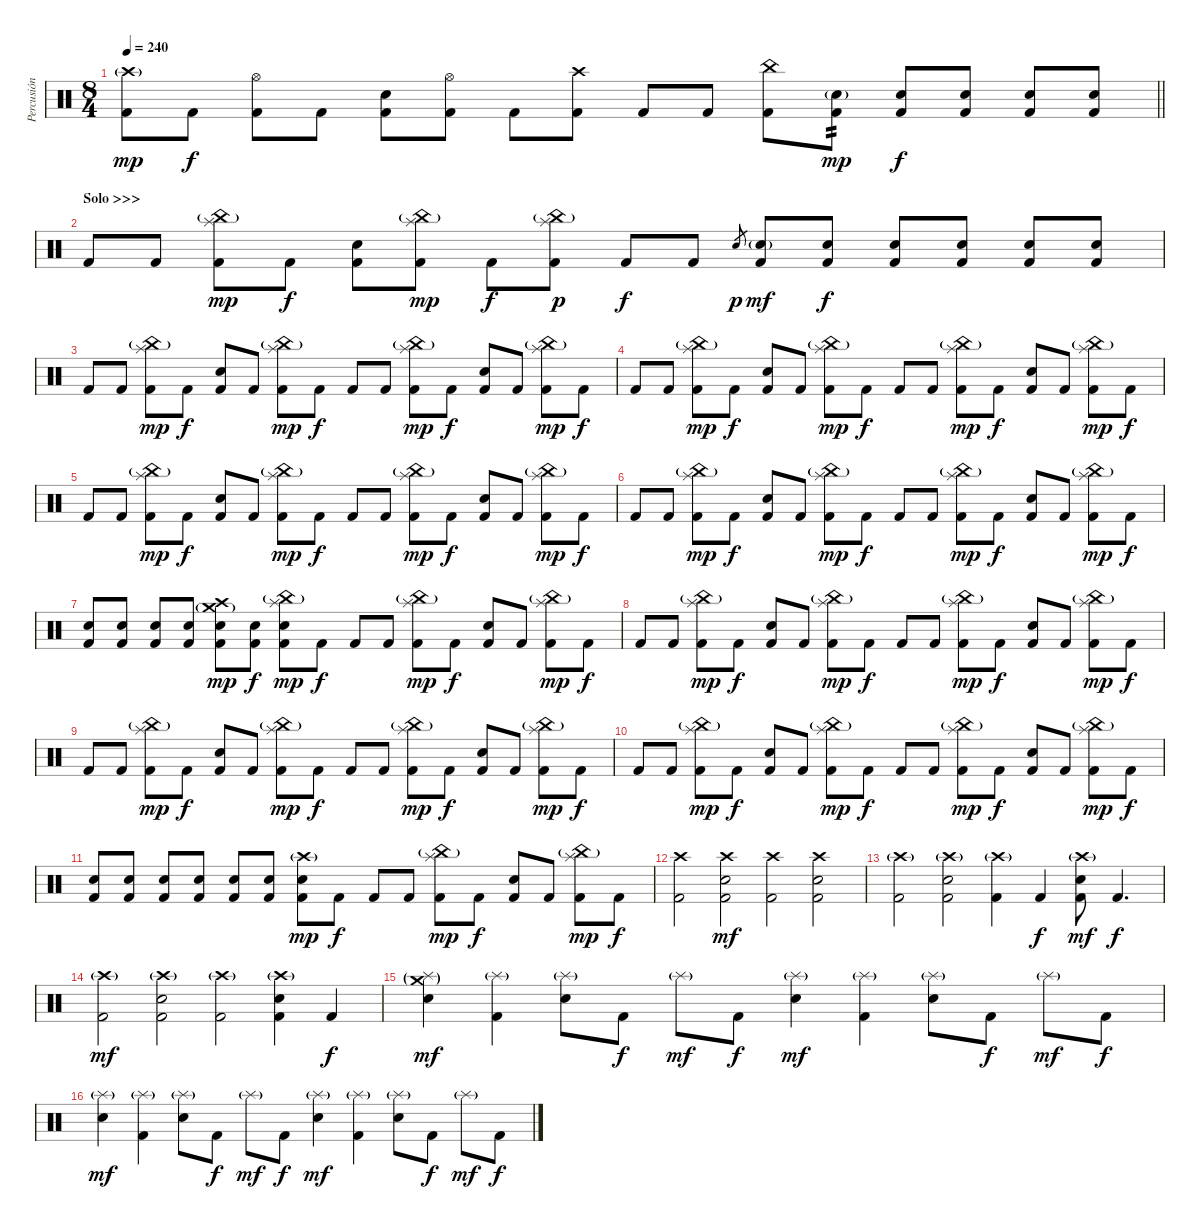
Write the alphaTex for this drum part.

\track ("Percusión" "Percusión") {instrument percussion}
\staff {score}
\articulation defaults
\ts (8 4)
\tempo 240
\clef neutral
\barLineRight lightlight
\ks c
("Crash high (hit)"{g} "Kick (hit) 2").8{dy mp} "Kick (hit) 2".8{dy f} ("Hi-Hat (open)" "Kick (hit) 2").8 "Kick (hit) 2".8 ("Electric Snare (hit)" "Kick (hit) 2").8 ("Hi-Hat (open)" "Kick (hit) 2").8 "Kick (hit) 2".8 ("Crash high (hit)" "Kick (hit) 2").8 "Kick (hit) 2".8 "Kick (hit) 2".8 ("China (hit)" "Kick (hit) 2").8 ("Electric Snare (hit)"{g} "Kick (hit) 2").8{tp 2 dy mp} ("Electric Snare (hit)" "Kick (hit) 2").8{dy f} ("Electric Snare (hit)" "Kick (hit) 2").8 ("Electric Snare (hit)" "Kick (hit) 2").8 ("Electric Snare (hit)" "Kick (hit) 2").8 |
\section ("" "Solo >>>")
"Kick (hit) 2".8 "Kick (hit) 2".8 ("Splash (hit)" "China (hit)"{g} "Kick (hit) 2").8{dy mp} "Kick (hit) 2".8{dy f} ("Electric Snare (hit)" "Kick (hit) 2").8 ("Splash (hit)" "China (hit)"{g} "Kick (hit) 2").8{dy mp} "Kick (hit) 2".8{dy f} ("Splash (hit)" "China (hit)"{g} "Kick (hit) 2").8{dy p} "Kick (hit) 2".8{dy f} "Kick (hit) 2".8 "Electric Snare (hit)".8{gr dy p} ("Electric Snare (hit)"{g} "Kick (hit) 2").8{dy mf} ("Electric Snare (hit)" "Kick (hit) 2").8{dy f} ("Electric Snare (hit)" "Kick (hit) 2").8 ("Electric Snare (hit)" "Kick (hit) 2").8 ("Electric Snare (hit)" "Kick (hit) 2").8 ("Electric Snare (hit)" "Kick (hit) 2").8 |
"Kick (hit) 2".8 "Kick (hit) 2".8 ("Splash (hit)" "China (hit)"{g} "Kick (hit) 2").8{dy mp} "Kick (hit) 2".8{dy f} ("Electric Snare (hit)" "Kick (hit) 2").8 "Kick (hit) 2".8 ("Splash (hit)" "China (hit)"{g} "Kick (hit) 2").8{dy mp} "Kick (hit) 2".8{dy f} "Kick (hit) 2".8 "Kick (hit) 2".8 ("Splash (hit)" "China (hit)"{g} "Kick (hit) 2").8{dy mp} "Kick (hit) 2".8{dy f} ("Electric Snare (hit)" "Kick (hit) 2").8 "Kick (hit) 2".8 ("Splash (hit)" "China (hit)"{g} "Kick (hit) 2").8{dy mp} "Kick (hit) 2".8{dy f} |
"Kick (hit) 2".8 "Kick (hit) 2".8 ("Splash (hit)" "China (hit)"{g} "Kick (hit) 2").8{dy mp} "Kick (hit) 2".8{dy f} ("Electric Snare (hit)" "Kick (hit) 2").8 "Kick (hit) 2".8 ("Splash (hit)" "China (hit)"{g} "Kick (hit) 2").8{dy mp} "Kick (hit) 2".8{dy f} "Kick (hit) 2".8 "Kick (hit) 2".8 ("Splash (hit)" "China (hit)"{g} "Kick (hit) 2").8{dy mp} "Kick (hit) 2".8{dy f} ("Electric Snare (hit)" "Kick (hit) 2").8 "Kick (hit) 2".8 ("Splash (hit)" "China (hit)"{g} "Kick (hit) 2").8{dy mp} "Kick (hit) 2".8{dy f} |
"Kick (hit) 2".8 "Kick (hit) 2".8 ("Splash (hit)" "China (hit)"{g} "Kick (hit) 2").8{dy mp} "Kick (hit) 2".8{dy f} ("Electric Snare (hit)" "Kick (hit) 2").8 "Kick (hit) 2".8 ("Splash (hit)" "China (hit)"{g} "Kick (hit) 2").8{dy mp} "Kick (hit) 2".8{dy f} "Kick (hit) 2".8 "Kick (hit) 2".8 ("Splash (hit)" "China (hit)"{g} "Kick (hit) 2").8{dy mp} "Kick (hit) 2".8{dy f} ("Electric Snare (hit)" "Kick (hit) 2").8 "Kick (hit) 2".8 ("Splash (hit)" "China (hit)"{g} "Kick (hit) 2").8{dy mp} "Kick (hit) 2".8{dy f} |
"Kick (hit) 2".8 "Kick (hit) 2".8 ("Splash (hit)" "China (hit)"{g} "Kick (hit) 2").8{dy mp} "Kick (hit) 2".8{dy f} ("Electric Snare (hit)" "Kick (hit) 2").8 "Kick (hit) 2".8 ("Splash (hit)" "China (hit)"{g} "Kick (hit) 2").8{dy mp} "Kick (hit) 2".8{dy f} "Kick (hit) 2".8 "Kick (hit) 2".8 ("Splash (hit)" "China (hit)"{g} "Kick (hit) 2").8{dy mp} "Kick (hit) 2".8{dy f} ("Electric Snare (hit)" "Kick (hit) 2").8 "Kick (hit) 2".8 ("Splash (hit)" "China (hit)"{g} "Kick (hit) 2").8{dy mp} "Kick (hit) 2".8{dy f} |
("Electric Snare (hit)" "Kick (hit) 2").8 ("Electric Snare (hit)" "Kick (hit) 2").8 ("Electric Snare (hit)" "Kick (hit) 2").8 ("Electric Snare (hit)" "Kick (hit) 2").8 ("Crash high (hit)" "Crash medium (hit)"{g} "Electric Snare (hit)" "Kick (hit) 2").8{dy mp} ("Electric Snare (hit)" "Kick (hit) 2").8{dy f} ("Splash (hit)" "China (hit)"{g} "Electric Snare (hit)" "Kick (hit) 2").8{dy mp} "Kick (hit) 2".8{dy f} "Kick (hit) 2".8 "Kick (hit) 2".8 ("Splash (hit)" "China (hit)"{g} "Kick (hit) 2").8{dy mp} "Kick (hit) 2".8{dy f} ("Electric Snare (hit)" "Kick (hit) 2").8 "Kick (hit) 2".8 ("Splash (hit)" "China (hit)"{g} "Kick (hit) 2").8{dy mp} "Kick (hit) 2".8{dy f} |
"Kick (hit) 2".8 "Kick (hit) 2".8 ("Splash (hit)" "China (hit)"{g} "Kick (hit) 2").8{dy mp} "Kick (hit) 2".8{dy f} ("Electric Snare (hit)" "Kick (hit) 2").8 "Kick (hit) 2".8 ("Splash (hit)" "China (hit)"{g} "Kick (hit) 2").8{dy mp} "Kick (hit) 2".8{dy f} "Kick (hit) 2".8 "Kick (hit) 2".8 ("Splash (hit)" "China (hit)"{g} "Kick (hit) 2").8{dy mp} "Kick (hit) 2".8{dy f} ("Electric Snare (hit)" "Kick (hit) 2").8 "Kick (hit) 2".8 ("Splash (hit)" "China (hit)"{g} "Kick (hit) 2").8{dy mp} "Kick (hit) 2".8{dy f} |
"Kick (hit) 2".8 "Kick (hit) 2".8 ("Splash (hit)" "China (hit)"{g} "Kick (hit) 2").8{dy mp} "Kick (hit) 2".8{dy f} ("Electric Snare (hit)" "Kick (hit) 2").8 "Kick (hit) 2".8 ("Splash (hit)" "China (hit)"{g} "Kick (hit) 2").8{dy mp} "Kick (hit) 2".8{dy f} "Kick (hit) 2".8 "Kick (hit) 2".8 ("Splash (hit)" "China (hit)"{g} "Kick (hit) 2").8{dy mp} "Kick (hit) 2".8{dy f} ("Electric Snare (hit)" "Kick (hit) 2").8 "Kick (hit) 2".8 ("Splash (hit)" "China (hit)"{g} "Kick (hit) 2").8{dy mp} "Kick (hit) 2".8{dy f} |
"Kick (hit) 2".8 "Kick (hit) 2".8 ("Splash (hit)" "China (hit)"{g} "Kick (hit) 2").8{dy mp} "Kick (hit) 2".8{dy f} ("Electric Snare (hit)" "Kick (hit) 2").8 "Kick (hit) 2".8 ("Splash (hit)" "China (hit)"{g} "Kick (hit) 2").8{dy mp} "Kick (hit) 2".8{dy f} "Kick (hit) 2".8 "Kick (hit) 2".8 ("Splash (hit)" "China (hit)"{g} "Kick (hit) 2").8{dy mp} "Kick (hit) 2".8{dy f} ("Electric Snare (hit)" "Kick (hit) 2").8 "Kick (hit) 2".8 ("Splash (hit)" "China (hit)"{g} "Kick (hit) 2").8{dy mp} "Kick (hit) 2".8{dy f} |
("Electric Snare (hit)" "Kick (hit) 2").8 ("Electric Snare (hit)" "Kick (hit) 2").8 ("Electric Snare (hit)" "Kick (hit) 2").8 ("Electric Snare (hit)" "Kick (hit) 2").8 ("Electric Snare (hit)" "Kick (hit) 2").8 ("Electric Snare (hit)" "Kick (hit) 2").8 ("Crash high (hit)"{g} "Electric Snare (hit)" "Kick (hit) 2").8{dy mp} "Kick (hit) 2".8{dy f} "Kick (hit) 2".8 "Kick (hit) 2".8 ("Splash (hit)" "China (hit)"{g} "Kick (hit) 2").8{dy mp} "Kick (hit) 2".8{dy f} ("Electric Snare (hit)" "Kick (hit) 2").8 "Kick (hit) 2".8 ("Splash (hit)" "China (hit)"{g} "Kick (hit) 2").8{dy mp} "Kick (hit) 2".8{dy f} |
("Crash high (hit)" "Kick (hit) 2").2 ("Crash high (hit)" "Electric Snare (hit)" "Kick (hit) 2").2{dy mf} ("Crash high (hit)" "Kick (hit) 2").2 ("Crash high (hit)" "Electric Snare (hit)" "Kick (hit) 2").2 |
("Crash high (hit)"{g} "Kick (hit) 2").2 ("Crash high (hit)"{g} "Electric Snare (hit)" "Kick (hit) 2").2 ("Crash high (hit)"{g} "Kick (hit) 2").4 "Kick (hit) 2".4{dy f} ("Crash high (hit)"{g} "Electric Snare (hit)" "Kick (hit) 2").8{dy mf} "Kick (hit) 2".4{d dy f} |
("Crash high (hit)"{g} "Kick (hit) 2").2{dy mf} ("Crash high (hit)"{g} "Electric Snare (hit)" "Kick (hit) 2").2 ("Crash high (hit)"{g} "Kick (hit) 2").2 ("Crash high (hit)"{g} "Electric Snare (hit)" "Kick (hit) 2").4 "Kick (hit) 2".4{dy f} |
("Crash medium (hit)"{g} "Splash (hit)"{g} "Electric Snare (hit)").4{dy mf} ("Splash (hit)"{g} "Kick (hit) 2").4 ("Splash (hit)"{g} "Electric Snare (hit)").8 "Kick (hit) 2".8{dy f} "Splash (hit)"{g}.8{dy mf} "Kick (hit) 2".8{dy f} ("Splash (hit)"{g} "Electric Snare (hit)").4{dy mf} ("Splash (hit)"{g} "Kick (hit) 2").4 ("Splash (hit)"{g} "Electric Snare (hit)").8 "Kick (hit) 2".8{dy f} "Splash (hit)"{g}.8{dy mf} "Kick (hit) 2".8{dy f} |
("Splash (hit)"{g} "Electric Snare (hit)").4{dy mf} ("Splash (hit)"{g} "Kick (hit) 2").4 ("Splash (hit)"{g} "Electric Snare (hit)").8 "Kick (hit) 2".8{dy f} "Splash (hit)"{g}.8{dy mf} "Kick (hit) 2".8{dy f} ("Splash (hit)"{g} "Electric Snare (hit)").4{dy mf} ("Splash (hit)"{g} "Kick (hit) 2").4 ("Splash (hit)"{g} "Electric Snare (hit)").8 "Kick (hit) 2".8{dy f} "Splash (hit)"{g}.8{dy mf} "Kick (hit) 2".8{dy f}
